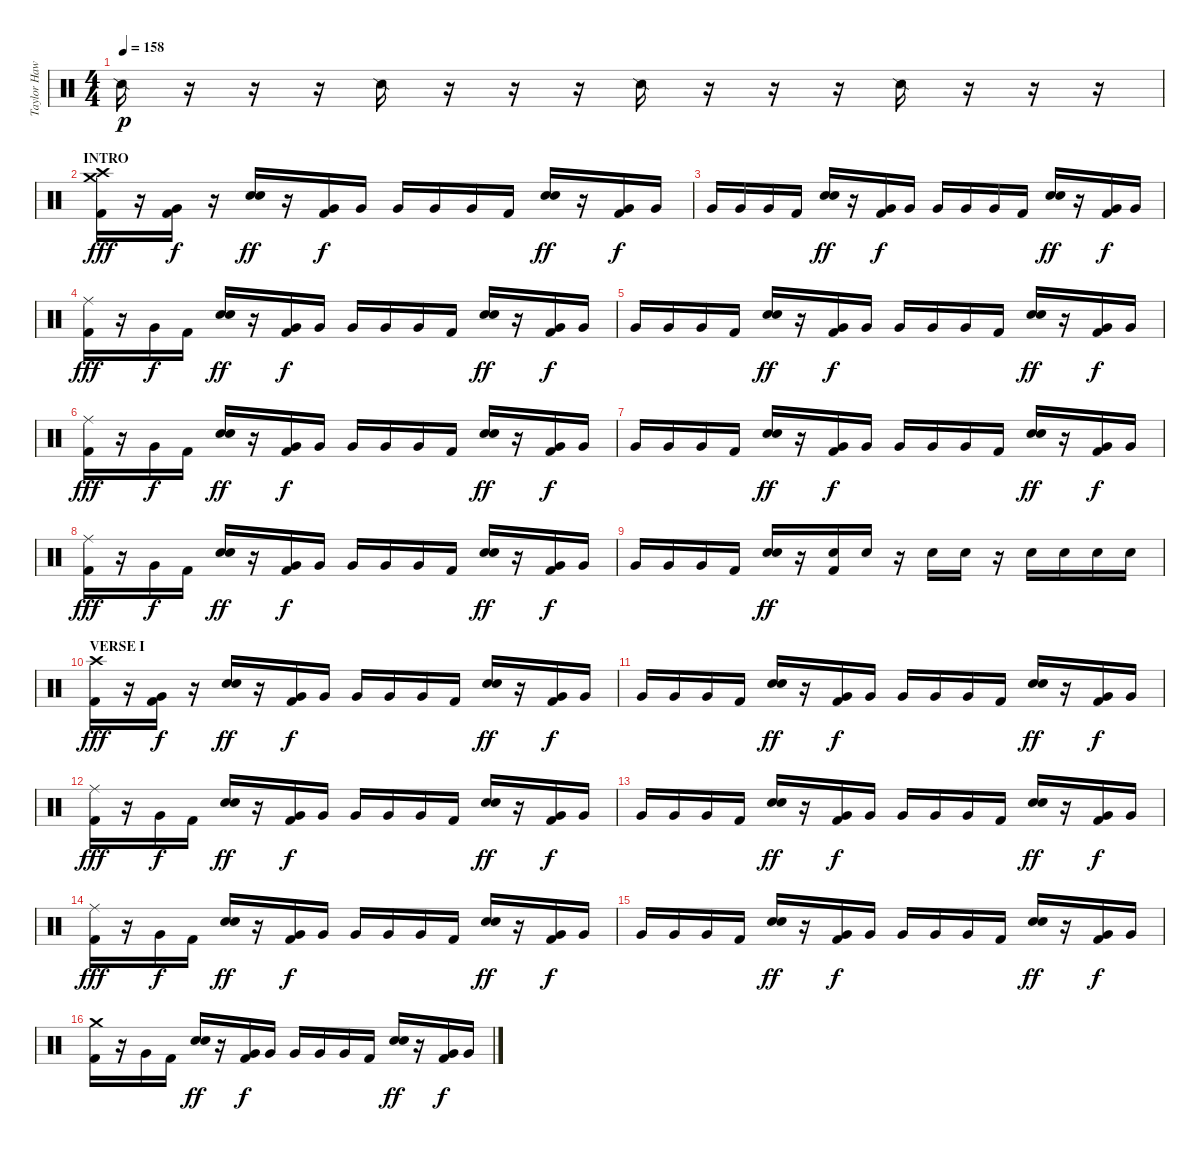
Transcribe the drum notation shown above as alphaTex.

\track ("Taylor Hawkins (Drums)" "Taylor Haw") {instrument percussion}
\staff {score}
\articulation defaults
\ts (4 4)
\tempo 158
\clef neutral
\ks c "Snare (side stick) 2".16{dy p}
r.16 r.16 r.16 "Snare (side stick) 2".16 r.16 r.16 r.16 "Snare (side stick) 2".16 r.16 r.16 r.16 "Snare (side stick) 2".16 r.16 r.16 r.16 |
\section ("" "INTRO")
("Crash high (hit)" "Crash medium (hit)" "Kick (hit) 2").16{dy fff} r.16 ("Very Low Tom (hit)" "Kick (hit) 2").16{dy f} r.16 ("Electric Snare (hit)" "Electric Snare (hit)").16{bu 120 dy ff} r.16 ("Very Low Tom (hit)" "Kick (hit) 2").16{dy f} "Very Low Tom (hit)".16 "Very Low Tom (hit)".16 "Very Low Tom (hit)".16 "Very Low Tom (hit)".16 "Kick (hit) 2".16 ("Electric Snare (hit)" "Electric Snare (hit)").16{bu 120 dy ff} r.16 ("Very Low Tom (hit)" "Kick (hit) 2").16{dy f} "Very Low Tom (hit)".16 |
"Very Low Tom (hit)".16 "Very Low Tom (hit)".16 "Very Low Tom (hit)".16 "Kick (hit) 2".16 ("Electric Snare (hit)" "Electric Snare (hit)").16{bu 120 dy ff} r.16 ("Very Low Tom (hit)" "Kick (hit) 2").16{dy f} "Very Low Tom (hit)".16 "Very Low Tom (hit)".16 "Very Low Tom (hit)".16 "Very Low Tom (hit)".16 "Kick (hit) 2".16 ("Electric Snare (hit)" "Electric Snare (hit)").16{bu 120 dy ff} r.16 ("Very Low Tom (hit)" "Kick (hit) 2").16{dy f} "Very Low Tom (hit)".16 |
("Ride (middle)" "Kick (hit) 2").16{dy fff} r.16 "Very Low Tom (hit)".16{dy f} "Kick (hit) 2".16 ("Electric Snare (hit)" "Electric Snare (hit)").16{bu 120 dy ff} r.16 ("Very Low Tom (hit)" "Kick (hit) 2").16{dy f} "Very Low Tom (hit)".16 "Very Low Tom (hit)".16 "Very Low Tom (hit)".16 "Very Low Tom (hit)".16 "Kick (hit) 2".16 ("Electric Snare (hit)" "Electric Snare (hit)").16{bu 120 dy ff} r.16 ("Very Low Tom (hit)" "Kick (hit) 2").16{dy f} "Very Low Tom (hit)".16 |
"Very Low Tom (hit)".16 "Very Low Tom (hit)".16 "Very Low Tom (hit)".16 "Kick (hit) 2".16 ("Electric Snare (hit)" "Electric Snare (hit)").16{bu 120 dy ff} r.16 ("Very Low Tom (hit)" "Kick (hit) 2").16{dy f} "Very Low Tom (hit)".16 "Very Low Tom (hit)".16 "Very Low Tom (hit)".16 "Very Low Tom (hit)".16 "Kick (hit) 2".16 ("Electric Snare (hit)" "Electric Snare (hit)").16{bu 120 dy ff} r.16 ("Very Low Tom (hit)" "Kick (hit) 2").16{dy f} "Very Low Tom (hit)".16 |
("Ride (middle)" "Kick (hit) 2").16{dy fff} r.16 "Very Low Tom (hit)".16{dy f} "Kick (hit) 2".16 ("Electric Snare (hit)" "Electric Snare (hit)").16{bu 120 dy ff} r.16 ("Very Low Tom (hit)" "Kick (hit) 2").16{dy f} "Very Low Tom (hit)".16 "Very Low Tom (hit)".16 "Very Low Tom (hit)".16 "Very Low Tom (hit)".16 "Kick (hit) 2".16 ("Electric Snare (hit)" "Electric Snare (hit)").16{bu 120 dy ff} r.16 ("Very Low Tom (hit)" "Kick (hit) 2").16{dy f} "Very Low Tom (hit)".16 |
"Very Low Tom (hit)".16 "Very Low Tom (hit)".16 "Very Low Tom (hit)".16 "Kick (hit) 2".16 ("Electric Snare (hit)" "Electric Snare (hit)").16{bu 120 dy ff} r.16 ("Very Low Tom (hit)" "Kick (hit) 2").16{dy f} "Very Low Tom (hit)".16 "Very Low Tom (hit)".16 "Very Low Tom (hit)".16 "Very Low Tom (hit)".16 "Kick (hit) 2".16 ("Electric Snare (hit)" "Electric Snare (hit)").16{bu 120 dy ff} r.16 ("Very Low Tom (hit)" "Kick (hit) 2").16{dy f} "Very Low Tom (hit)".16 |
("Ride (middle)" "Kick (hit) 2").16{dy fff} r.16 "Very Low Tom (hit)".16{dy f} "Kick (hit) 2".16 ("Electric Snare (hit)" "Electric Snare (hit)").16{bu 120 dy ff} r.16 ("Very Low Tom (hit)" "Kick (hit) 2").16{dy f} "Very Low Tom (hit)".16 "Very Low Tom (hit)".16 "Very Low Tom (hit)".16 "Very Low Tom (hit)".16 "Kick (hit) 2".16 ("Electric Snare (hit)" "Electric Snare (hit)").16{bu 120 dy ff} r.16 ("Very Low Tom (hit)" "Kick (hit) 2").16{dy f} "Very Low Tom (hit)".16 |
"Very Low Tom (hit)".16 "Very Low Tom (hit)".16 "Very Low Tom (hit)".16 "Kick (hit) 2".16 ("Electric Snare (hit)" "Electric Snare (hit)").16{bu 120 dy ff} r.16 ("Electric Snare (hit)" "Kick (hit) 2").16 "Electric Snare (hit)".16 r.16 "Electric Snare (hit)".16 "Electric Snare (hit)".16 r.16 "Electric Snare (hit)".16 "Electric Snare (hit)".16 "Electric Snare (hit)".16 "Electric Snare (hit)".16 |
\section ("" "VERSE I")
("Crash high (hit)" "Kick (hit) 2").16{dy fff} r.16 ("Very Low Tom (hit)" "Kick (hit) 2").16{dy f} r.16 ("Electric Snare (hit)" "Electric Snare (hit)").16{bu 120 dy ff} r.16 ("Very Low Tom (hit)" "Kick (hit) 2").16{dy f} "Very Low Tom (hit)".16 "Very Low Tom (hit)".16 "Very Low Tom (hit)".16 "Very Low Tom (hit)".16 "Kick (hit) 2".16 ("Electric Snare (hit)" "Electric Snare (hit)").16{bu 120 dy ff} r.16 ("Very Low Tom (hit)" "Kick (hit) 2").16{dy f} "Very Low Tom (hit)".16 |
"Very Low Tom (hit)".16 "Very Low Tom (hit)".16 "Very Low Tom (hit)".16 "Kick (hit) 2".16 ("Electric Snare (hit)" "Electric Snare (hit)").16{bu 120 dy ff} r.16 ("Very Low Tom (hit)" "Kick (hit) 2").16{dy f} "Very Low Tom (hit)".16 "Very Low Tom (hit)".16 "Very Low Tom (hit)".16 "Very Low Tom (hit)".16 "Kick (hit) 2".16 ("Electric Snare (hit)" "Electric Snare (hit)").16{bu 120 dy ff} r.16 ("Very Low Tom (hit)" "Kick (hit) 2").16{dy f} "Very Low Tom (hit)".16 |
("Ride (middle)" "Kick (hit) 2").16{dy fff} r.16 "Very Low Tom (hit)".16{dy f} "Kick (hit) 2".16 ("Electric Snare (hit)" "Electric Snare (hit)").16{bu 120 dy ff} r.16 ("Very Low Tom (hit)" "Kick (hit) 2").16{dy f} "Very Low Tom (hit)".16 "Very Low Tom (hit)".16 "Very Low Tom (hit)".16 "Very Low Tom (hit)".16 "Kick (hit) 2".16 ("Electric Snare (hit)" "Electric Snare (hit)").16{bu 120 dy ff} r.16 ("Very Low Tom (hit)" "Kick (hit) 2").16{dy f} "Very Low Tom (hit)".16 |
"Very Low Tom (hit)".16 "Very Low Tom (hit)".16 "Very Low Tom (hit)".16 "Kick (hit) 2".16 ("Electric Snare (hit)" "Electric Snare (hit)").16{bu 120 dy ff} r.16 ("Very Low Tom (hit)" "Kick (hit) 2").16{dy f} "Very Low Tom (hit)".16 "Very Low Tom (hit)".16 "Very Low Tom (hit)".16 "Very Low Tom (hit)".16 "Kick (hit) 2".16 ("Electric Snare (hit)" "Electric Snare (hit)").16{bu 120 dy ff} r.16 ("Very Low Tom (hit)" "Kick (hit) 2").16{dy f} "Very Low Tom (hit)".16 |
("Ride (middle)" "Kick (hit) 2").16{dy fff} r.16 "Very Low Tom (hit)".16{dy f} "Kick (hit) 2".16 ("Electric Snare (hit)" "Electric Snare (hit)").16{bu 120 dy ff} r.16 ("Very Low Tom (hit)" "Kick (hit) 2").16{dy f} "Very Low Tom (hit)".16 "Very Low Tom (hit)".16 "Very Low Tom (hit)".16 "Very Low Tom (hit)".16 "Kick (hit) 2".16 ("Electric Snare (hit)" "Electric Snare (hit)").16{bu 120 dy ff} r.16 ("Very Low Tom (hit)" "Kick (hit) 2").16{dy f} "Very Low Tom (hit)".16 |
"Very Low Tom (hit)".16 "Very Low Tom (hit)".16 "Very Low Tom (hit)".16 "Kick (hit) 2".16 ("Electric Snare (hit)" "Electric Snare (hit)").16{bu 120 dy ff} r.16 ("Very Low Tom (hit)" "Kick (hit) 2").16{dy f} "Very Low Tom (hit)".16 "Very Low Tom (hit)".16 "Very Low Tom (hit)".16 "Very Low Tom (hit)".16 "Kick (hit) 2".16 ("Electric Snare (hit)" "Electric Snare (hit)").16{bu 120 dy ff} r.16 ("Very Low Tom (hit)" "Kick (hit) 2").16{dy f} "Very Low Tom (hit)".16 |
("Crash medium (hit)" "Kick (hit) 2").16 r.16 "Very Low Tom (hit)".16 "Kick (hit) 2".16 ("Electric Snare (hit)" "Electric Snare (hit)").16{bu 120 dy ff} r.16 ("Very Low Tom (hit)" "Kick (hit) 2").16{dy f} "Very Low Tom (hit)".16 "Very Low Tom (hit)".16 "Very Low Tom (hit)".16 "Very Low Tom (hit)".16 "Kick (hit) 2".16 ("Electric Snare (hit)" "Electric Snare (hit)").16{bu 120 dy ff} r.16 ("Very Low Tom (hit)" "Kick (hit) 2").16{dy f} "Very Low Tom (hit)".16
